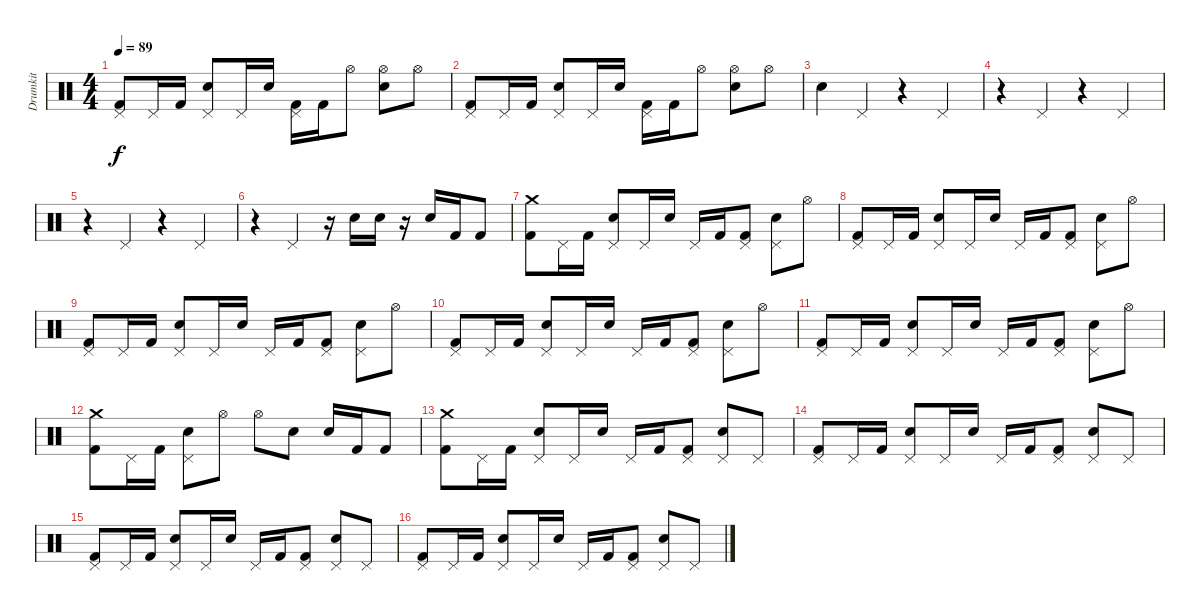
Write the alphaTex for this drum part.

\track ("Drumkit" "Drumkit") {instrument percussion}
\staff {score}
\articulation defaults
\ts (4 4)
\tempo 89
\clef neutral
\ks c
("Pedal Hi-Hat (hit)" "Kick (hit) 2").8{dy f} "Pedal Hi-Hat (hit)".16 "Kick (hit) 2".16 ("Pedal Hi-Hat (hit)" "Snare (hit) 2").8 "Pedal Hi-Hat (hit)".16 "Snare (hit) 2".16 ("Pedal Hi-Hat (hit)" "Kick (hit) 2").16 "Kick (hit) 2".16 "Hi-Hat (open)".8 ("Hi-Hat (open)" "Snare (hit) 2").8 "Hi-Hat (open)".8 |
("Pedal Hi-Hat (hit)" "Kick (hit) 2").8 "Pedal Hi-Hat (hit)".16 "Kick (hit) 2".16 ("Pedal Hi-Hat (hit)" "Snare (hit) 2").8 "Pedal Hi-Hat (hit)".16 "Snare (hit) 2".16 ("Pedal Hi-Hat (hit)" "Kick (hit) 2").16 "Kick (hit) 2".16 "Hi-Hat (open)".8 ("Hi-Hat (open)" "Snare (hit) 2").8 "Hi-Hat (open)".8 |
"Snare (hit) 2".4 "Pedal Hi-Hat (hit)".4 r.4 "Pedal Hi-Hat (hit)".4 |
r.4 "Pedal Hi-Hat (hit)".4 r.4 "Pedal Hi-Hat (hit)".4 |
r.4 "Pedal Hi-Hat (hit)".4 r.4 "Pedal Hi-Hat (hit)".4 |
r.4 "Pedal Hi-Hat (hit)".4 r.16 "Snare (hit) 2".16 "Snare (hit) 2".16 r.16 "Snare (hit) 2".16 "Kick (hit) 2".16 "Kick (hit) 2".8 |
("Crash medium (hit)" "Kick (hit) 2").8 "Pedal Hi-Hat (hit)".16 "Kick (hit) 2".16 ("Pedal Hi-Hat (hit)" "Snare (hit) 2").8 "Pedal Hi-Hat (hit)".16 "Snare (hit) 2".16 "Pedal Hi-Hat (hit)".16 "Kick (hit) 2".16 ("Pedal Hi-Hat (hit)" "Kick (hit) 2").8 ("Pedal Hi-Hat (hit)" "Snare (hit) 2").8 "Hi-Hat (open)".8 |
("Pedal Hi-Hat (hit)" "Kick (hit) 2").8 "Pedal Hi-Hat (hit)".16 "Kick (hit) 2".16 ("Pedal Hi-Hat (hit)" "Snare (hit) 2").8 "Pedal Hi-Hat (hit)".16 "Snare (hit) 2".16 "Pedal Hi-Hat (hit)".16 "Kick (hit) 2".16 ("Pedal Hi-Hat (hit)" "Kick (hit) 2").8 ("Pedal Hi-Hat (hit)" "Snare (hit) 2").8 "Hi-Hat (open)".8 |
("Pedal Hi-Hat (hit)" "Kick (hit) 2").8 "Pedal Hi-Hat (hit)".16 "Kick (hit) 2".16 ("Pedal Hi-Hat (hit)" "Snare (hit) 2").8 "Pedal Hi-Hat (hit)".16 "Snare (hit) 2".16 "Pedal Hi-Hat (hit)".16 "Kick (hit) 2".16 ("Pedal Hi-Hat (hit)" "Kick (hit) 2").8 ("Pedal Hi-Hat (hit)" "Snare (hit) 2").8 "Hi-Hat (open)".8 |
("Pedal Hi-Hat (hit)" "Kick (hit) 2").8 "Pedal Hi-Hat (hit)".16 "Kick (hit) 2".16 ("Pedal Hi-Hat (hit)" "Snare (hit) 2").8 "Pedal Hi-Hat (hit)".16 "Snare (hit) 2".16 "Pedal Hi-Hat (hit)".16 "Kick (hit) 2".16 ("Pedal Hi-Hat (hit)" "Kick (hit) 2").8 ("Pedal Hi-Hat (hit)" "Snare (hit) 2").8 "Hi-Hat (open)".8 |
("Pedal Hi-Hat (hit)" "Kick (hit) 2").8 "Pedal Hi-Hat (hit)".16 "Kick (hit) 2".16 ("Pedal Hi-Hat (hit)" "Snare (hit) 2").8 "Pedal Hi-Hat (hit)".16 "Snare (hit) 2".16 "Pedal Hi-Hat (hit)".16 "Kick (hit) 2".16 ("Pedal Hi-Hat (hit)" "Kick (hit) 2").8 ("Pedal Hi-Hat (hit)" "Snare (hit) 2").8 "Hi-Hat (open)".8 |
("Crash medium (hit)" "Kick (hit) 2").8 "Pedal Hi-Hat (hit)".16 "Kick (hit) 2".16 ("Pedal Hi-Hat (hit)" "Snare (hit) 2").8 "Hi-Hat (open)".8 "Hi-Hat (open)".8 "Snare (hit) 2".8 "Snare (hit) 2".16 "Kick (hit) 2".16 "Kick (hit) 2".8 |
("Crash medium (hit)" "Kick (hit) 2").8 "Pedal Hi-Hat (hit)".16 "Kick (hit) 2".16 ("Pedal Hi-Hat (hit)" "Snare (hit) 2").8 "Pedal Hi-Hat (hit)".16 "Snare (hit) 2".16 "Pedal Hi-Hat (hit)".16 "Kick (hit) 2".16 ("Pedal Hi-Hat (hit)" "Kick (hit) 2").8 ("Pedal Hi-Hat (hit)" "Snare (hit) 2").8 "Pedal Hi-Hat (hit)".8 |
("Pedal Hi-Hat (hit)" "Kick (hit) 2").8 "Pedal Hi-Hat (hit)".16 "Kick (hit) 2".16 ("Pedal Hi-Hat (hit)" "Snare (hit) 2").8 "Pedal Hi-Hat (hit)".16 "Snare (hit) 2".16 "Pedal Hi-Hat (hit)".16 "Kick (hit) 2".16 ("Pedal Hi-Hat (hit)" "Kick (hit) 2").8 ("Pedal Hi-Hat (hit)" "Snare (hit) 2").8 "Pedal Hi-Hat (hit)".8 |
("Pedal Hi-Hat (hit)" "Kick (hit) 2").8 "Pedal Hi-Hat (hit)".16 "Kick (hit) 2".16 ("Pedal Hi-Hat (hit)" "Snare (hit) 2").8 "Pedal Hi-Hat (hit)".16 "Snare (hit) 2".16 "Pedal Hi-Hat (hit)".16 "Kick (hit) 2".16 ("Pedal Hi-Hat (hit)" "Kick (hit) 2").8 ("Pedal Hi-Hat (hit)" "Snare (hit) 2").8 "Pedal Hi-Hat (hit)".8 |
("Pedal Hi-Hat (hit)" "Kick (hit) 2").8 "Pedal Hi-Hat (hit)".16 "Kick (hit) 2".16 ("Pedal Hi-Hat (hit)" "Snare (hit) 2").8 "Pedal Hi-Hat (hit)".16 "Snare (hit) 2".16 "Pedal Hi-Hat (hit)".16 "Kick (hit) 2".16 ("Pedal Hi-Hat (hit)" "Kick (hit) 2").8 ("Pedal Hi-Hat (hit)" "Snare (hit) 2").8 "Pedal Hi-Hat (hit)".8
